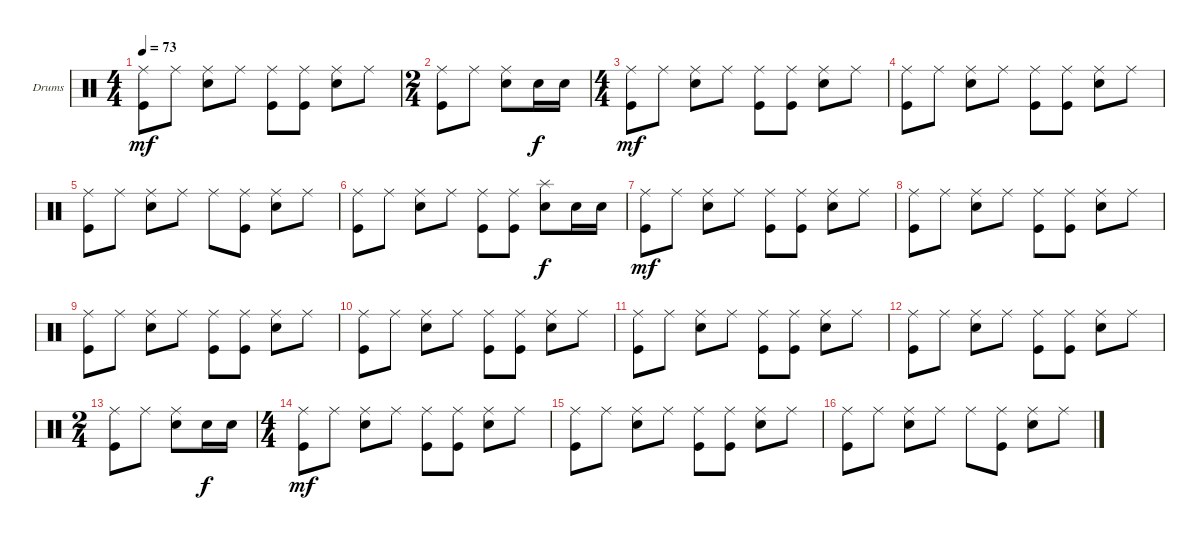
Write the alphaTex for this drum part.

\bracketExtendMode groupsimilarinstruments
\firstSystemTrackNameOrientation horizontal
\otherSystemsTrackNameOrientation horizontal
\track ("Drumkit" "Drums") {solo instrument percussion}
\staff {score}
\articulation defaults
\ts (4 4)
\tempo 73
\clef neutral
\ks c
("Ride (middle)" "Kick (hit)").8{dy mf} "Ride (middle)".8 ("Ride (middle)" "Snare (hit) 2").8 "Ride (middle)".8 ("Ride (middle)" "Kick (hit)").8 ("Ride (middle)" "Kick (hit)").8 ("Ride (middle)" "Snare (hit) 2").8 "Ride (middle)".8 |
\ts (2 4)
("Ride (middle)" "Kick (hit)").8 "Ride (middle)".8 ("Ride (middle)" "Snare (hit) 2").8 "Snare (hit) 2".16{dy f} "Snare (hit) 2".16 |
\ts (4 4)
("Ride (middle)" "Kick (hit)").8{dy mf} "Ride (middle)".8 ("Ride (middle)" "Snare (hit) 2").8 "Ride (middle)".8 ("Ride (middle)" "Kick (hit)").8 ("Ride (middle)" "Kick (hit)").8 ("Ride (middle)" "Snare (hit) 2").8 "Ride (middle)".8 |
("Ride (middle)" "Kick (hit)").8 "Ride (middle)".8 ("Ride (middle)" "Snare (hit) 2").8 "Ride (middle)".8 ("Ride (middle)" "Kick (hit)").8 ("Ride (middle)" "Kick (hit)").8 ("Ride (middle)" "Snare (hit) 2").8 "Ride (middle)".8 |
("Ride (middle)" "Kick (hit)").8 "Ride (middle)".8 ("Ride (middle)" "Snare (hit) 2").8 "Ride (middle)".8 "Ride (middle)".8 ("Ride (middle)" "Kick (hit)").8 ("Ride (middle)" "Snare (hit) 2").8 "Ride (middle)".8 |
("Ride (middle)" "Kick (hit)").8 "Ride (middle)".8 ("Ride (middle)" "Snare (hit) 2").8 "Ride (middle)".8 ("Ride (middle)" "Kick (hit)").8 ("Ride (middle)" "Kick (hit)").8 ("Splash (hit)" "Snare (hit) 2").8{dy f} "Snare (hit) 2".16 "Snare (hit) 2".16 |
("Ride (middle)" "Kick (hit)").8{dy mf} "Ride (middle)".8 ("Ride (middle)" "Snare (hit) 2").8 "Ride (middle)".8 ("Ride (middle)" "Kick (hit)").8 ("Ride (middle)" "Kick (hit)").8 ("Ride (middle)" "Snare (hit) 2").8 "Ride (middle)".8 |
("Ride (middle)" "Kick (hit)").8 "Ride (middle)".8 ("Ride (middle)" "Snare (hit) 2").8 "Ride (middle)".8 ("Ride (middle)" "Kick (hit)").8 ("Ride (middle)" "Kick (hit)").8 ("Ride (middle)" "Snare (hit) 2").8 "Ride (middle)".8 |
("Ride (middle)" "Kick (hit)").8 "Ride (middle)".8 ("Ride (middle)" "Snare (hit) 2").8 "Ride (middle)".8 ("Ride (middle)" "Kick (hit)").8 ("Ride (middle)" "Kick (hit)").8 ("Ride (middle)" "Snare (hit) 2").8 "Ride (middle)".8 |
("Ride (middle)" "Kick (hit)").8 "Ride (middle)".8 ("Ride (middle)" "Snare (hit) 2").8 "Ride (middle)".8 ("Ride (middle)" "Kick (hit)").8 ("Ride (middle)" "Kick (hit)").8 ("Ride (middle)" "Snare (hit) 2").8 "Ride (middle)".8 |
("Ride (middle)" "Kick (hit)").8 "Ride (middle)".8 ("Ride (middle)" "Snare (hit) 2").8 "Ride (middle)".8 ("Ride (middle)" "Kick (hit)").8 ("Ride (middle)" "Kick (hit)").8 ("Ride (middle)" "Snare (hit) 2").8 "Ride (middle)".8 |
("Ride (middle)" "Kick (hit)").8 "Ride (middle)".8 ("Ride (middle)" "Snare (hit) 2").8 "Ride (middle)".8 ("Ride (middle)" "Kick (hit)").8 ("Ride (middle)" "Kick (hit)").8 ("Ride (middle)" "Snare (hit) 2").8 "Ride (middle)".8 |
\ts (2 4)
("Ride (middle)" "Kick (hit)").8 "Ride (middle)".8 ("Ride (middle)" "Snare (hit) 2").8 "Snare (hit) 2".16{dy f} "Snare (hit) 2".16 |
\ts (4 4)
("Ride (middle)" "Kick (hit)").8{dy mf} "Ride (middle)".8 ("Ride (middle)" "Snare (hit) 2").8 "Ride (middle)".8 ("Ride (middle)" "Kick (hit)").8 ("Ride (middle)" "Kick (hit)").8 ("Ride (middle)" "Snare (hit) 2").8 "Ride (middle)".8 |
("Ride (middle)" "Kick (hit)").8 "Ride (middle)".8 ("Ride (middle)" "Snare (hit) 2").8 "Ride (middle)".8 ("Ride (middle)" "Kick (hit)").8 ("Ride (middle)" "Kick (hit)").8 ("Ride (middle)" "Snare (hit) 2").8 "Ride (middle)".8 |
("Ride (middle)" "Kick (hit)").8 "Ride (middle)".8 ("Ride (middle)" "Snare (hit) 2").8 "Ride (middle)".8 "Ride (middle)".8 ("Ride (middle)" "Kick (hit)").8 ("Ride (middle)" "Snare (hit) 2").8 "Ride (middle)".8
